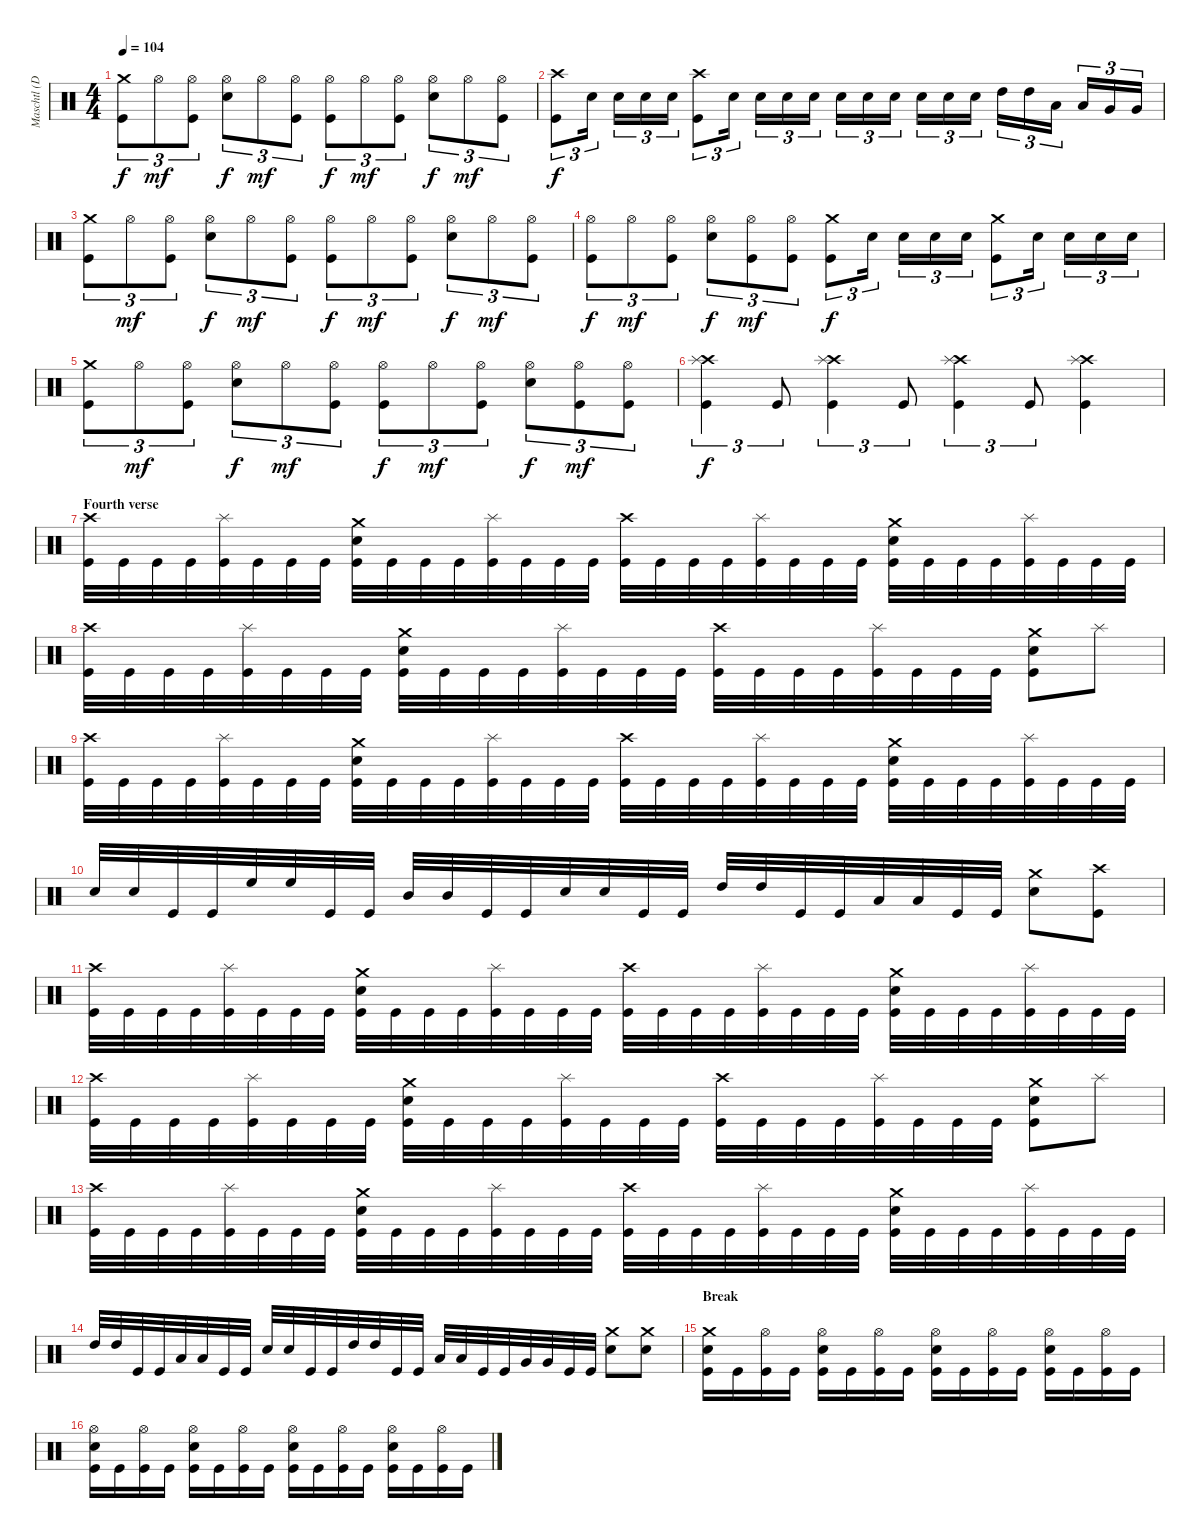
\track ("Maschtl (Drums)" "Maschtl (D") {instrument percussion}
\staff {score}
\articulation defaults
\ts (4 4)
\tempo 104
\clef neutral
\ks c
("Crash medium (hit)" "Kick (hit)").8{tu (3 2) dy f} "Hi-Hat (open)".8{tu (3 2) dy mf} ("Hi-Hat (open)" "Kick (hit)").8{tu (3 2)} ("Hi-Hat (open)" "Electric Snare (hit)").8{tu (3 2) dy f} "Hi-Hat (open)".8{tu (3 2) dy mf} ("Hi-Hat (open)" "Kick (hit)").8{tu (3 2)} ("Hi-Hat (open)" "Kick (hit)").8{tu (3 2) dy f} "Hi-Hat (open)".8{tu (3 2) dy mf} ("Hi-Hat (open)" "Kick (hit)").8{tu (3 2)} ("Hi-Hat (open)" "Electric Snare (hit)").8{tu (3 2) dy f} "Hi-Hat (open)".8{tu (3 2) dy mf} ("Hi-Hat (open)" "Kick (hit)").8{tu (3 2)} |
("Crash high (hit)" "Kick (hit)").8{tu (3 2) dy f} "Electric Snare (hit)".16{tu (3 2)} "Electric Snare (hit)".16{tu (3 2)} "Electric Snare (hit)".16{tu (3 2)} "Electric Snare (hit)".16{tu (3 2)} ("Crash high (hit)" "Kick (hit)").8{tu (3 2)} "Electric Snare (hit)".16{tu (3 2)} "Electric Snare (hit)".16{tu (3 2)} "Electric Snare (hit)".16{tu (3 2)} "Electric Snare (hit)".16{tu (3 2)} "Electric Snare (hit)".16{tu (3 2)} "Electric Snare (hit)".16{tu (3 2)} "Electric Snare (hit)".16{tu (3 2)} "Electric Snare (hit)".16{tu (3 2)} "Electric Snare (hit)".16{tu (3 2)} "Electric Snare (hit)".16{tu (3 2)} "High Tom (hit)".16{tu (3 2)} "High Tom (hit)".16{tu (3 2)} "Low Tom (hit)".16{tu (3 2)} "Low Tom (hit)".16{tu (3 2)} "Very Low Tom (hit)".16{tu (3 2)} "Very Low Tom (hit)".16{tu (3 2)} |
("Crash medium (hit)" "Kick (hit)").8{tu (3 2)} "Hi-Hat (open)".8{tu (3 2) dy mf} ("Hi-Hat (open)" "Kick (hit)").8{tu (3 2)} ("Hi-Hat (open)" "Electric Snare (hit)").8{tu (3 2) dy f} "Hi-Hat (open)".8{tu (3 2) dy mf} ("Hi-Hat (open)" "Kick (hit)").8{tu (3 2)} ("Hi-Hat (open)" "Kick (hit)").8{tu (3 2) dy f} "Hi-Hat (open)".8{tu (3 2) dy mf} ("Hi-Hat (open)" "Kick (hit)").8{tu (3 2)} ("Hi-Hat (open)" "Electric Snare (hit)").8{tu (3 2) dy f} "Hi-Hat (open)".8{tu (3 2) dy mf} ("Hi-Hat (open)" "Kick (hit)").8{tu (3 2)} |
("Hi-Hat (open)" "Kick (hit)").8{tu (3 2) dy f} "Hi-Hat (open)".8{tu (3 2) dy mf} ("Hi-Hat (open)" "Kick (hit)").8{tu (3 2)} ("Hi-Hat (open)" "Electric Snare (hit)").8{tu (3 2) dy f} ("Hi-Hat (open)" "Kick (hit)").8{tu (3 2) dy mf} ("Hi-Hat (open)" "Kick (hit)").8{tu (3 2)} ("Crash medium (hit)" "Kick (hit)").8{tu (3 2) dy f} "Electric Snare (hit)".16{tu (3 2)} "Electric Snare (hit)".16{tu (3 2)} "Electric Snare (hit)".16{tu (3 2)} "Electric Snare (hit)".16{tu (3 2)} ("Crash medium (hit)" "Kick (hit)").8{tu (3 2)} "Electric Snare (hit)".16{tu (3 2)} "Electric Snare (hit)".16{tu (3 2)} "Electric Snare (hit)".16{tu (3 2)} "Electric Snare (hit)".16{tu (3 2)} |
("Crash medium (hit)" "Kick (hit)").8{tu (3 2)} "Hi-Hat (open)".8{tu (3 2) dy mf} ("Hi-Hat (open)" "Kick (hit)").8{tu (3 2)} ("Hi-Hat (open)" "Electric Snare (hit)").8{tu (3 2) dy f} "Hi-Hat (open)".8{tu (3 2) dy mf} ("Hi-Hat (open)" "Kick (hit)").8{tu (3 2)} ("Hi-Hat (open)" "Kick (hit)").8{tu (3 2) dy f} "Hi-Hat (open)".8{tu (3 2) dy mf} ("Hi-Hat (open)" "Kick (hit)").8{tu (3 2)} ("Hi-Hat (open)" "Electric Snare (hit)").8{tu (3 2) dy f} ("Hi-Hat (open)" "Kick (hit)").8{tu (3 2) dy mf} ("Hi-Hat (open)" "Kick (hit)").8{tu (3 2)} |
("Crash high (hit)" "Splash (hit)" "Kick (hit)").4{tu (3 2) dy f} "Kick (hit)".8{tu (3 2)} ("Crash high (hit)" "Splash (hit)" "Kick (hit)").4{tu (3 2)} "Kick (hit)".8{tu (3 2)} ("Crash high (hit)" "Splash (hit)" "Kick (hit)").4{tu (3 2)} "Kick (hit)".8{tu (3 2)} ("Crash high (hit)" "Splash (hit)" "Kick (hit)").4 |
\section ("" "Fourth verse")
("Crash high (hit)" "Kick (hit)").32 "Kick (hit)".32 "Kick (hit)".32 "Kick (hit)".32 ("Splash (hit)" "Kick (hit)").32 "Kick (hit)".32 "Kick (hit)".32 "Kick (hit)".32 ("Crash medium (hit)" "Electric Snare (hit)" "Kick (hit)").32 "Kick (hit)".32 "Kick (hit)".32 "Kick (hit)".32 ("Splash (hit)" "Kick (hit)").32 "Kick (hit)".32 "Kick (hit)".32 "Kick (hit)".32 ("Crash high (hit)" "Kick (hit)").32 "Kick (hit)".32 "Kick (hit)".32 "Kick (hit)".32 ("Splash (hit)" "Kick (hit)").32 "Kick (hit)".32 "Kick (hit)".32 "Kick (hit)".32 ("Crash medium (hit)" "Electric Snare (hit)" "Kick (hit)").32 "Kick (hit)".32 "Kick (hit)".32 "Kick (hit)".32 ("Splash (hit)" "Kick (hit)").32 "Kick (hit)".32 "Kick (hit)".32 "Kick (hit)".32 |
("Crash high (hit)" "Kick (hit)").32 "Kick (hit)".32 "Kick (hit)".32 "Kick (hit)".32 ("Splash (hit)" "Kick (hit)").32 "Kick (hit)".32 "Kick (hit)".32 "Kick (hit)".32 ("Crash medium (hit)" "Electric Snare (hit)" "Kick (hit)").32 "Kick (hit)".32 "Kick (hit)".32 "Kick (hit)".32 ("Splash (hit)" "Kick (hit)").32 "Kick (hit)".32 "Kick (hit)".32 "Kick (hit)".32 ("Crash high (hit)" "Kick (hit)").32 "Kick (hit)".32 "Kick (hit)".32 "Kick (hit)".32 ("Splash (hit)" "Kick (hit)").32 "Kick (hit)".32 "Kick (hit)".32 "Kick (hit)".32 ("Crash medium (hit)" "Electric Snare (hit)" "Kick (hit)").8 "Splash (hit)".8 |
("Crash high (hit)" "Kick (hit)").32 "Kick (hit)".32 "Kick (hit)".32 "Kick (hit)".32 ("Splash (hit)" "Kick (hit)").32 "Kick (hit)".32 "Kick (hit)".32 "Kick (hit)".32 ("Crash medium (hit)" "Electric Snare (hit)" "Kick (hit)").32 "Kick (hit)".32 "Kick (hit)".32 "Kick (hit)".32 ("Splash (hit)" "Kick (hit)").32 "Kick (hit)".32 "Kick (hit)".32 "Kick (hit)".32 ("Crash high (hit)" "Kick (hit)").32 "Kick (hit)".32 "Kick (hit)".32 "Kick (hit)".32 ("Splash (hit)" "Kick (hit)").32 "Kick (hit)".32 "Kick (hit)".32 "Kick (hit)".32 ("Crash medium (hit)" "Electric Snare (hit)" "Kick (hit)").32 "Kick (hit)".32 "Kick (hit)".32 "Kick (hit)".32 ("Splash (hit)" "Kick (hit)").32 "Kick (hit)".32 "Kick (hit)".32 "Kick (hit)".32 |
"Electric Snare (hit)".32 "Electric Snare (hit)".32 "Kick (hit)".32 "Kick (hit)".32 "High Floor Tom (hit)".32 "High Floor Tom (hit)".32 "Kick (hit)".32 "Kick (hit)".32 "Mid Tom (hit)".32 "Mid Tom (hit)".32 "Kick (hit)".32 "Kick (hit)".32 "Electric Snare (hit)".32 "Electric Snare (hit)".32 "Kick (hit)".32 "Kick (hit)".32 "High Tom (hit)".32 "High Tom (hit)".32 "Kick (hit)".32 "Kick (hit)".32 "Low Tom (hit)".32 "Low Tom (hit)".32 "Kick (hit)".32 "Kick (hit)".32 ("Crash medium (hit)" "Electric Snare (hit)").8 ("Crash high (hit)" "Kick (hit)").8 |
("Crash high (hit)" "Kick (hit)").32 "Kick (hit)".32 "Kick (hit)".32 "Kick (hit)".32 ("Splash (hit)" "Kick (hit)").32 "Kick (hit)".32 "Kick (hit)".32 "Kick (hit)".32 ("Crash medium (hit)" "Electric Snare (hit)" "Kick (hit)").32 "Kick (hit)".32 "Kick (hit)".32 "Kick (hit)".32 ("Splash (hit)" "Kick (hit)").32 "Kick (hit)".32 "Kick (hit)".32 "Kick (hit)".32 ("Crash high (hit)" "Kick (hit)").32 "Kick (hit)".32 "Kick (hit)".32 "Kick (hit)".32 ("Splash (hit)" "Kick (hit)").32 "Kick (hit)".32 "Kick (hit)".32 "Kick (hit)".32 ("Crash medium (hit)" "Electric Snare (hit)" "Kick (hit)").32 "Kick (hit)".32 "Kick (hit)".32 "Kick (hit)".32 ("Splash (hit)" "Kick (hit)").32 "Kick (hit)".32 "Kick (hit)".32 "Kick (hit)".32 |
("Crash high (hit)" "Kick (hit)").32 "Kick (hit)".32 "Kick (hit)".32 "Kick (hit)".32 ("Splash (hit)" "Kick (hit)").32 "Kick (hit)".32 "Kick (hit)".32 "Kick (hit)".32 ("Crash medium (hit)" "Electric Snare (hit)" "Kick (hit)").32 "Kick (hit)".32 "Kick (hit)".32 "Kick (hit)".32 ("Splash (hit)" "Kick (hit)").32 "Kick (hit)".32 "Kick (hit)".32 "Kick (hit)".32 ("Crash high (hit)" "Kick (hit)").32 "Kick (hit)".32 "Kick (hit)".32 "Kick (hit)".32 ("Splash (hit)" "Kick (hit)").32 "Kick (hit)".32 "Kick (hit)".32 "Kick (hit)".32 ("Crash medium (hit)" "Electric Snare (hit)" "Kick (hit)").8 "Splash (hit)".8 |
("Crash high (hit)" "Kick (hit)").32 "Kick (hit)".32 "Kick (hit)".32 "Kick (hit)".32 ("Splash (hit)" "Kick (hit)").32 "Kick (hit)".32 "Kick (hit)".32 "Kick (hit)".32 ("Crash medium (hit)" "Electric Snare (hit)" "Kick (hit)").32 "Kick (hit)".32 "Kick (hit)".32 "Kick (hit)".32 ("Splash (hit)" "Kick (hit)").32 "Kick (hit)".32 "Kick (hit)".32 "Kick (hit)".32 ("Crash high (hit)" "Kick (hit)").32 "Kick (hit)".32 "Kick (hit)".32 "Kick (hit)".32 ("Splash (hit)" "Kick (hit)").32 "Kick (hit)".32 "Kick (hit)".32 "Kick (hit)".32 ("Crash medium (hit)" "Electric Snare (hit)" "Kick (hit)").32 "Kick (hit)".32 "Kick (hit)".32 "Kick (hit)".32 ("Splash (hit)" "Kick (hit)").32 "Kick (hit)".32 "Kick (hit)".32 "Kick (hit)".32 |
"High Tom (hit)".32 "High Tom (hit)".32 "Kick (hit)".32 "Kick (hit)".32 "Low Tom (hit)".32 "Low Tom (hit)".32 "Kick (hit)".32 "Kick (hit)".32 "Electric Snare (hit)".32 "Electric Snare (hit)".32 "Kick (hit)".32 "Kick (hit)".32 "High Tom (hit)".32 "High Tom (hit)".32 "Kick (hit)".32 "Kick (hit)".32 "Low Tom (hit)".32 "Low Tom (hit)".32 "Kick (hit)".32 "Kick (hit)".32 "Very Low Tom (hit)".32 "Very Low Tom (hit)".32 "Kick (hit)".32 "Kick (hit)".32 ("Crash medium (hit)" "Electric Snare (hit)").8 ("Crash medium (hit)" "Electric Snare (hit)").8 |
\section ("" "Break")
("Crash medium (hit)" "Electric Snare (hit)" "Kick (hit)").16 "Kick (hit)".16 ("Hi-Hat (open)" "Kick (hit)").16 "Kick (hit)".16 ("Hi-Hat (open)" "Electric Snare (hit)" "Kick (hit)").16 "Kick (hit)".16 ("Hi-Hat (open)" "Kick (hit)").16 "Kick (hit)".16 ("Hi-Hat (open)" "Electric Snare (hit)" "Kick (hit)").16 "Kick (hit)".16 ("Hi-Hat (open)" "Kick (hit)").16 "Kick (hit)".16 ("Hi-Hat (open)" "Electric Snare (hit)" "Kick (hit)").16 "Kick (hit)".16 ("Hi-Hat (open)" "Kick (hit)").16 "Kick (hit)".16 |
("Hi-Hat (open)" "Electric Snare (hit)" "Kick (hit)").16 "Kick (hit)".16 ("Hi-Hat (open)" "Kick (hit)").16 "Kick (hit)".16 ("Hi-Hat (open)" "Electric Snare (hit)" "Kick (hit)").16 "Kick (hit)".16 ("Hi-Hat (open)" "Kick (hit)").16 "Kick (hit)".16 ("Hi-Hat (open)" "Electric Snare (hit)" "Kick (hit)").16 "Kick (hit)".16 ("Hi-Hat (open)" "Kick (hit)").16 "Kick (hit)".16 ("Hi-Hat (open)" "Electric Snare (hit)" "Kick (hit)").16 "Kick (hit)".16 ("Hi-Hat (open)" "Kick (hit)").16 "Kick (hit)".16
